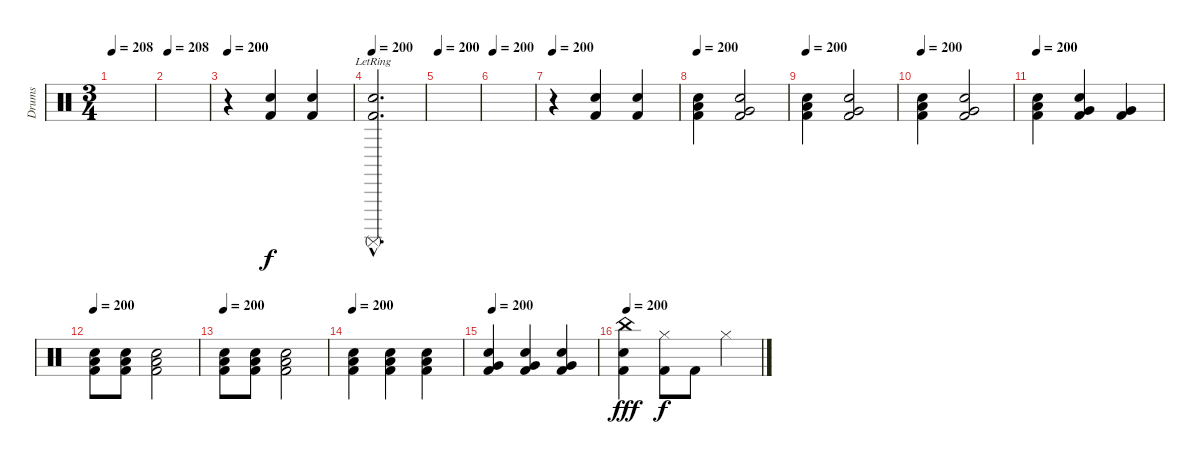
\track ("Drums" "Drums") {instrument percussion}
\staff {score}
\articulation defaults
\ts (3 4)
\tempo 208
\clef neutral
\ks c
|
\tempo 208
|
\tempo 200
r.4 ("Electric Snare (hit)" "Kick (hit) 2").4 ("Electric Snare (hit)" "Kick (hit) 2").4 |
\tempo 200
("Surdo (mute)"{hac lr} "Electric Snare (hit)"{hac} "Kick (hit) 2"{hac}).2{d} |
\tempo 200
|
\tempo 200
|
\tempo 200
r.4 ("Electric Snare (hit)" "Kick (hit) 2").4 ("Electric Snare (hit)" "Kick (hit) 2").4 |
\tempo 200
("Low Tom (hit)" "Electric Snare (hit)" "Kick (hit) 2").4 ("Very Low Tom (hit)" "Electric Snare (hit)" "Kick (hit) 2").2 |
\tempo 200
("Low Tom (hit)" "Electric Snare (hit)" "Kick (hit) 2").4 ("Very Low Tom (hit)" "Electric Snare (hit)" "Kick (hit) 2").2 |
\tempo 200
("Low Tom (hit)" "Electric Snare (hit)" "Kick (hit) 2").4 ("Very Low Tom (hit)" "Electric Snare (hit)" "Kick (hit) 2").2 |
\tempo 200
("Low Tom (hit)" "Electric Snare (hit)" "Kick (hit) 2").4 ("Very Low Tom (hit)" "Electric Snare (hit)" "Kick (hit) 2").4 ("Very Low Tom (hit)" "Kick (hit) 2").4 |
\tempo 200
("Low Tom (hit)" "Electric Snare (hit)" "Kick (hit) 2").8 ("Low Tom (hit)" "Electric Snare (hit)" "Kick (hit) 2").8 ("Low Tom (hit)" "Electric Snare (hit)" "Kick (hit) 2").2 |
\tempo 200
("Low Tom (hit)" "Electric Snare (hit)" "Kick (hit) 2").8 ("Low Tom (hit)" "Electric Snare (hit)" "Kick (hit) 2").8 ("Low Tom (hit)" "Electric Snare (hit)" "Kick (hit) 2").2 |
\tempo 200
("Low Tom (hit)" "Electric Snare (hit)" "Kick (hit) 2").4 ("Low Tom (hit)" "Electric Snare (hit)" "Kick (hit) 2").4 ("Low Tom (hit)" "Electric Snare (hit)" "Kick (hit) 2").4 |
\tempo 200
("Very Low Tom (hit)" "Electric Snare (hit)" "Kick (hit) 2").4 ("Very Low Tom (hit)" "Electric Snare (hit)" "Kick (hit) 2").4 ("Very Low Tom (hit)" "Electric Snare (hit)" "Kick (hit) 2").4 |
\tempo 200
("China (hit)" "Electric Snare (hit)" "Kick (hit) 2").4{dy fff} ("Hi-Hat (closed)" "Kick (hit) 2").8{dy f} "Kick (hit) 2".8 "Hi-Hat (closed)".4
